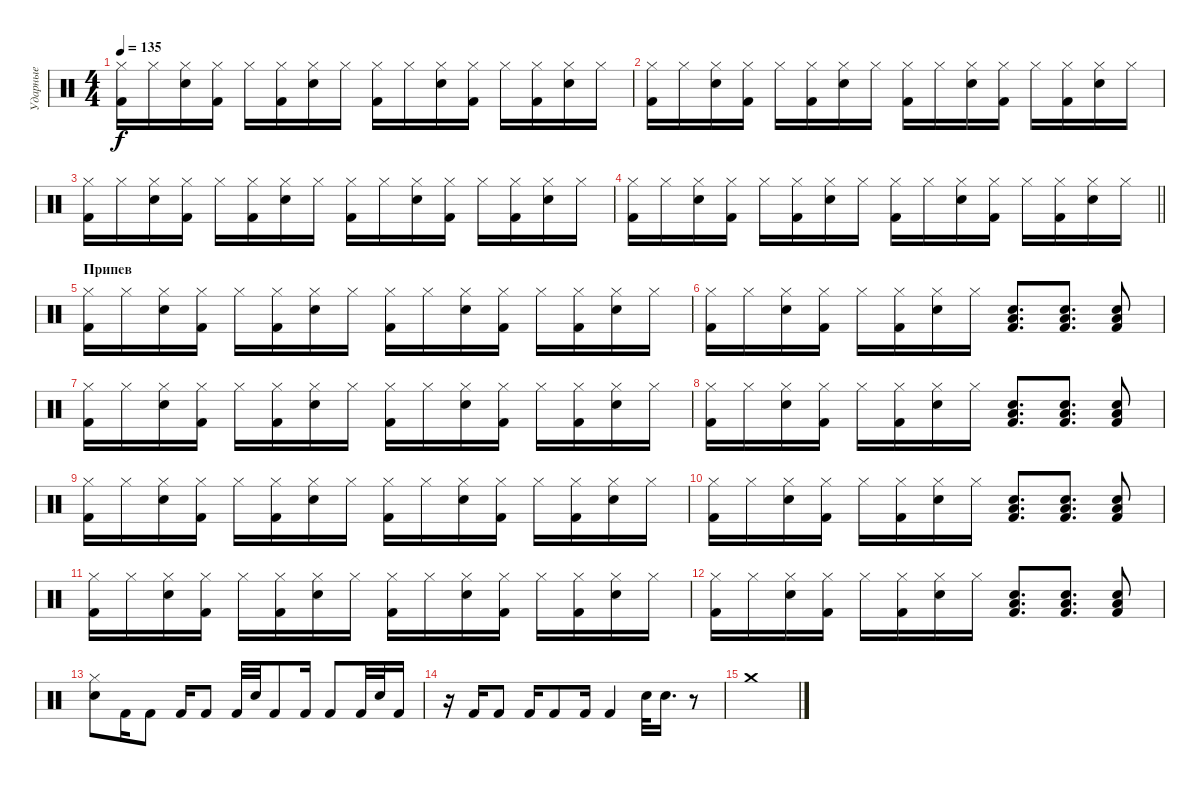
\track ("Ударные" "Ударные") {instrument percussion}
\staff {score}
\articulation defaults
\ts (4 4)
\tempo 135
\clef neutral
\ks c
("Hi-Hat (closed)" "Kick (hit) 2").16{dy f} "Hi-Hat (closed)".16 ("Hi-Hat (closed)" "Snare (hit) 2").16 ("Hi-Hat (closed)" "Kick (hit) 2").16 "Hi-Hat (closed)".16 ("Hi-Hat (closed)" "Kick (hit) 2").16 ("Hi-Hat (closed)" "Snare (hit) 2").16 "Hi-Hat (closed)".16 ("Hi-Hat (closed)" "Kick (hit) 2").16 "Hi-Hat (closed)".16 ("Hi-Hat (closed)" "Snare (hit) 2").16 ("Hi-Hat (closed)" "Kick (hit) 2").16 "Hi-Hat (closed)".16 ("Hi-Hat (closed)" "Kick (hit) 2").16 ("Hi-Hat (closed)" "Snare (hit) 2").16 "Hi-Hat (closed)".16 |
("Hi-Hat (closed)" "Kick (hit) 2").16 "Hi-Hat (closed)".16 ("Hi-Hat (closed)" "Snare (hit) 2").16 ("Hi-Hat (closed)" "Kick (hit) 2").16 "Hi-Hat (closed)".16 ("Hi-Hat (closed)" "Kick (hit) 2").16 ("Hi-Hat (closed)" "Snare (hit) 2").16 "Hi-Hat (closed)".16 ("Hi-Hat (closed)" "Kick (hit) 2").16 "Hi-Hat (closed)".16 ("Hi-Hat (closed)" "Snare (hit) 2").16 ("Hi-Hat (closed)" "Kick (hit) 2").16 "Hi-Hat (closed)".16 ("Hi-Hat (closed)" "Kick (hit) 2").16 ("Hi-Hat (closed)" "Snare (hit) 2").16 "Hi-Hat (closed)".16 |
("Hi-Hat (closed)" "Kick (hit) 2").16 "Hi-Hat (closed)".16 ("Hi-Hat (closed)" "Snare (hit) 2").16 ("Hi-Hat (closed)" "Kick (hit) 2").16 "Hi-Hat (closed)".16 ("Hi-Hat (closed)" "Kick (hit) 2").16 ("Hi-Hat (closed)" "Snare (hit) 2").16 "Hi-Hat (closed)".16 ("Hi-Hat (closed)" "Kick (hit) 2").16 "Hi-Hat (closed)".16 ("Hi-Hat (closed)" "Snare (hit) 2").16 ("Hi-Hat (closed)" "Kick (hit) 2").16 "Hi-Hat (closed)".16 ("Hi-Hat (closed)" "Kick (hit) 2").16 ("Hi-Hat (closed)" "Snare (hit) 2").16 "Hi-Hat (closed)".16 |
\barLineRight lightlight
("Hi-Hat (closed)" "Kick (hit) 2").16 "Hi-Hat (closed)".16 ("Hi-Hat (closed)" "Snare (hit) 2").16 ("Hi-Hat (closed)" "Kick (hit) 2").16 "Hi-Hat (closed)".16 ("Hi-Hat (closed)" "Kick (hit) 2").16 ("Hi-Hat (closed)" "Snare (hit) 2").16 "Hi-Hat (closed)".16 ("Hi-Hat (closed)" "Kick (hit) 2").16 "Hi-Hat (closed)".16 ("Hi-Hat (closed)" "Snare (hit) 2").16 ("Hi-Hat (closed)" "Kick (hit) 2").16 "Hi-Hat (closed)".16 ("Hi-Hat (closed)" "Kick (hit) 2").16 ("Hi-Hat (closed)" "Snare (hit) 2").16 "Hi-Hat (closed)".16 |
\section ("" "Припев")
("Hi-Hat (closed)" "Kick (hit) 2").16 "Hi-Hat (closed)".16 ("Hi-Hat (closed)" "Snare (hit) 2").16 ("Hi-Hat (closed)" "Kick (hit) 2").16 "Hi-Hat (closed)".16 ("Hi-Hat (closed)" "Kick (hit) 2").16 ("Hi-Hat (closed)" "Snare (hit) 2").16 "Hi-Hat (closed)".16 ("Hi-Hat (closed)" "Kick (hit) 2").16 "Hi-Hat (closed)".16 ("Hi-Hat (closed)" "Snare (hit) 2").16 ("Hi-Hat (closed)" "Kick (hit) 2").16 "Hi-Hat (closed)".16 ("Hi-Hat (closed)" "Kick (hit) 2").16 ("Hi-Hat (closed)" "Snare (hit) 2").16 "Hi-Hat (closed)".16 |
("Hi-Hat (closed)" "Kick (hit) 2").16 "Hi-Hat (closed)".16 ("Hi-Hat (closed)" "Snare (hit) 2").16 ("Hi-Hat (closed)" "Kick (hit) 2").16 "Hi-Hat (closed)".16 ("Hi-Hat (closed)" "Kick (hit) 2").16 ("Hi-Hat (closed)" "Snare (hit) 2").16 "Hi-Hat (closed)".16 ("Snare (hit) 2" "Low Tom (hit)" "Kick (hit) 2").8{d} ("Snare (hit) 2" "Low Tom (hit)" "Kick (hit) 2").8{d} ("Snare (hit) 2" "Low Tom (hit)" "Kick (hit) 2").8 |
("Hi-Hat (closed)" "Kick (hit) 2").16 "Hi-Hat (closed)".16 ("Hi-Hat (closed)" "Snare (hit) 2").16 ("Hi-Hat (closed)" "Kick (hit) 2").16 "Hi-Hat (closed)".16 ("Hi-Hat (closed)" "Kick (hit) 2").16 ("Hi-Hat (closed)" "Snare (hit) 2").16 "Hi-Hat (closed)".16 ("Hi-Hat (closed)" "Kick (hit) 2").16 "Hi-Hat (closed)".16 ("Hi-Hat (closed)" "Snare (hit) 2").16 ("Hi-Hat (closed)" "Kick (hit) 2").16 "Hi-Hat (closed)".16 ("Hi-Hat (closed)" "Kick (hit) 2").16 ("Hi-Hat (closed)" "Snare (hit) 2").16 "Hi-Hat (closed)".16 |
("Hi-Hat (closed)" "Kick (hit) 2").16 "Hi-Hat (closed)".16 ("Hi-Hat (closed)" "Snare (hit) 2").16 ("Hi-Hat (closed)" "Kick (hit) 2").16 "Hi-Hat (closed)".16 ("Hi-Hat (closed)" "Kick (hit) 2").16 ("Hi-Hat (closed)" "Snare (hit) 2").16 "Hi-Hat (closed)".16 ("Snare (hit) 2" "Low Tom (hit)" "Kick (hit) 2").8{d} ("Snare (hit) 2" "Low Tom (hit)" "Kick (hit) 2").8{d} ("Snare (hit) 2" "Low Tom (hit)" "Kick (hit) 2").8 |
("Hi-Hat (closed)" "Kick (hit) 2").16 "Hi-Hat (closed)".16 ("Hi-Hat (closed)" "Snare (hit) 2").16 ("Hi-Hat (closed)" "Kick (hit) 2").16 "Hi-Hat (closed)".16 ("Hi-Hat (closed)" "Kick (hit) 2").16 ("Hi-Hat (closed)" "Snare (hit) 2").16 "Hi-Hat (closed)".16 ("Hi-Hat (closed)" "Kick (hit) 2").16 "Hi-Hat (closed)".16 ("Hi-Hat (closed)" "Snare (hit) 2").16 ("Hi-Hat (closed)" "Kick (hit) 2").16 "Hi-Hat (closed)".16 ("Hi-Hat (closed)" "Kick (hit) 2").16 ("Hi-Hat (closed)" "Snare (hit) 2").16 "Hi-Hat (closed)".16 |
("Hi-Hat (closed)" "Kick (hit) 2").16 "Hi-Hat (closed)".16 ("Hi-Hat (closed)" "Snare (hit) 2").16 ("Hi-Hat (closed)" "Kick (hit) 2").16 "Hi-Hat (closed)".16 ("Hi-Hat (closed)" "Kick (hit) 2").16 ("Hi-Hat (closed)" "Snare (hit) 2").16 "Hi-Hat (closed)".16 ("Snare (hit) 2" "Low Tom (hit)" "Kick (hit) 2").8{d} ("Snare (hit) 2" "Low Tom (hit)" "Kick (hit) 2").8{d} ("Snare (hit) 2" "Low Tom (hit)" "Kick (hit) 2").8 |
("Hi-Hat (closed)" "Kick (hit) 2").16 "Hi-Hat (closed)".16 ("Hi-Hat (closed)" "Snare (hit) 2").16 ("Hi-Hat (closed)" "Kick (hit) 2").16 "Hi-Hat (closed)".16 ("Hi-Hat (closed)" "Kick (hit) 2").16 ("Hi-Hat (closed)" "Snare (hit) 2").16 "Hi-Hat (closed)".16 ("Hi-Hat (closed)" "Kick (hit) 2").16 "Hi-Hat (closed)".16 ("Hi-Hat (closed)" "Snare (hit) 2").16 ("Hi-Hat (closed)" "Kick (hit) 2").16 "Hi-Hat (closed)".16 ("Hi-Hat (closed)" "Kick (hit) 2").16 ("Hi-Hat (closed)" "Snare (hit) 2").16 "Hi-Hat (closed)".16 |
("Hi-Hat (closed)" "Kick (hit) 2").16 "Hi-Hat (closed)".16 ("Hi-Hat (closed)" "Snare (hit) 2").16 ("Hi-Hat (closed)" "Kick (hit) 2").16 "Hi-Hat (closed)".16 ("Hi-Hat (closed)" "Kick (hit) 2").16 ("Hi-Hat (closed)" "Snare (hit) 2").16 "Hi-Hat (closed)".16 ("Snare (hit) 2" "Low Tom (hit)" "Kick (hit) 2").8{d} ("Snare (hit) 2" "Low Tom (hit)" "Kick (hit) 2").8{d} ("Snare (hit) 2" "Low Tom (hit)" "Kick (hit) 2").8 |
("Hi-Hat (closed)" "Snare (hit) 2").8 "Kick (hit) 2".16 "Kick (hit) 2".8 "Kick (hit) 2".16 "Kick (hit) 2".8 "Kick (hit) 2".32 "Snare (hit) 2".32 "Kick (hit) 2".8 "Kick (hit) 2".16 "Kick (hit) 2".8 "Kick (hit) 2".32 "Snare (hit) 2".32 "Kick (hit) 2".16 |
r.16 "Kick (hit) 2".16 "Kick (hit) 2".8 "Kick (hit) 2".16 "Kick (hit) 2".8 "Kick (hit) 2".16 "Kick (hit) 2".4 "Snare (hit) 2".32 "Snare (hit) 2".16{d} r.8 |
"Crash medium (hit)".1
